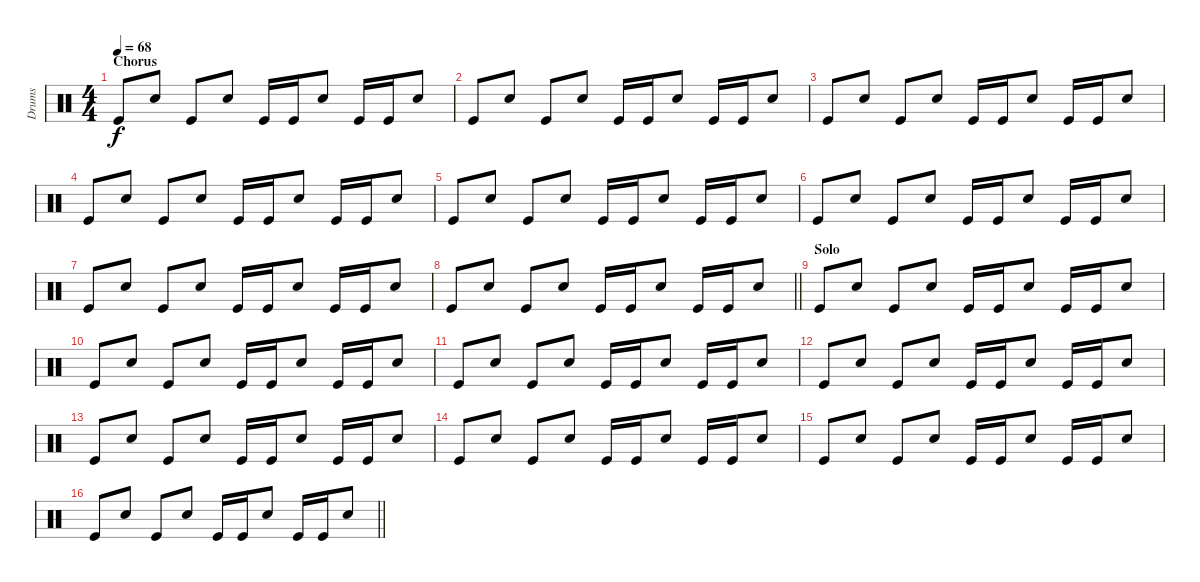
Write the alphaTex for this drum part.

\track ("Drums" "Drums") {instrument percussion}
\staff {score}
\articulation defaults
\ts (4 4)
\section ("" "Chorus")
\tempo 68
\clef neutral
\ks c "Kick (hit)".8{dy f} "Snare (hit) 2".8 "Kick (hit)".8 "Snare (hit) 2".8 "Kick (hit)".16 "Kick (hit)".16 "Snare (hit) 2".8 "Kick (hit)".16 "Kick (hit)".16 "Snare (hit) 2".8
|
"Kick (hit)".8 "Snare (hit) 2".8 "Kick (hit)".8 "Snare (hit) 2".8 "Kick (hit)".16 "Kick (hit)".16 "Snare (hit) 2".8 "Kick (hit)".16 "Kick (hit)".16 "Snare (hit) 2".8 |
"Kick (hit)".8 "Snare (hit) 2".8 "Kick (hit)".8 "Snare (hit) 2".8 "Kick (hit)".16 "Kick (hit)".16 "Snare (hit) 2".8 "Kick (hit)".16 "Kick (hit)".16 "Snare (hit) 2".8 |
"Kick (hit)".8 "Snare (hit) 2".8 "Kick (hit)".8 "Snare (hit) 2".8 "Kick (hit)".16 "Kick (hit)".16 "Snare (hit) 2".8 "Kick (hit)".16 "Kick (hit)".16 "Snare (hit) 2".8 |
"Kick (hit)".8 "Snare (hit) 2".8 "Kick (hit)".8 "Snare (hit) 2".8 "Kick (hit)".16 "Kick (hit)".16 "Snare (hit) 2".8 "Kick (hit)".16 "Kick (hit)".16 "Snare (hit) 2".8 |
"Kick (hit)".8 "Snare (hit) 2".8 "Kick (hit)".8 "Snare (hit) 2".8 "Kick (hit)".16 "Kick (hit)".16 "Snare (hit) 2".8 "Kick (hit)".16 "Kick (hit)".16 "Snare (hit) 2".8 |
"Kick (hit)".8 "Snare (hit) 2".8 "Kick (hit)".8 "Snare (hit) 2".8 "Kick (hit)".16 "Kick (hit)".16 "Snare (hit) 2".8 "Kick (hit)".16 "Kick (hit)".16 "Snare (hit) 2".8 |
\barLineRight lightlight "Kick (hit)".8 "Snare (hit) 2".8 "Kick (hit)".8 "Snare (hit) 2".8 "Kick (hit)".16 "Kick (hit)".16 "Snare (hit) 2".8 "Kick (hit)".16 "Kick (hit)".16 "Snare (hit) 2".8
|
\section ("" "Solo")
"Kick (hit)".8 "Snare (hit) 2".8 "Kick (hit)".8 "Snare (hit) 2".8 "Kick (hit)".16 "Kick (hit)".16 "Snare (hit) 2".8 "Kick (hit)".16 "Kick (hit)".16 "Snare (hit) 2".8 |
"Kick (hit)".8 "Snare (hit) 2".8 "Kick (hit)".8 "Snare (hit) 2".8 "Kick (hit)".16 "Kick (hit)".16 "Snare (hit) 2".8 "Kick (hit)".16 "Kick (hit)".16 "Snare (hit) 2".8 |
"Kick (hit)".8 "Snare (hit) 2".8 "Kick (hit)".8 "Snare (hit) 2".8 "Kick (hit)".16 "Kick (hit)".16 "Snare (hit) 2".8 "Kick (hit)".16 "Kick (hit)".16 "Snare (hit) 2".8 |
"Kick (hit)".8 "Snare (hit) 2".8 "Kick (hit)".8 "Snare (hit) 2".8 "Kick (hit)".16 "Kick (hit)".16 "Snare (hit) 2".8 "Kick (hit)".16 "Kick (hit)".16 "Snare (hit) 2".8 |
"Kick (hit)".8 "Snare (hit) 2".8 "Kick (hit)".8 "Snare (hit) 2".8 "Kick (hit)".16 "Kick (hit)".16 "Snare (hit) 2".8 "Kick (hit)".16 "Kick (hit)".16 "Snare (hit) 2".8 |
"Kick (hit)".8 "Snare (hit) 2".8 "Kick (hit)".8 "Snare (hit) 2".8 "Kick (hit)".16 "Kick (hit)".16 "Snare (hit) 2".8 "Kick (hit)".16 "Kick (hit)".16 "Snare (hit) 2".8 |
"Kick (hit)".8 "Snare (hit) 2".8 "Kick (hit)".8 "Snare (hit) 2".8 "Kick (hit)".16 "Kick (hit)".16 "Snare (hit) 2".8 "Kick (hit)".16 "Kick (hit)".16 "Snare (hit) 2".8 |
\barLineRight lightlight "Kick (hit)".8 "Snare (hit) 2".8 "Kick (hit)".8 "Snare (hit) 2".8 "Kick (hit)".16 "Kick (hit)".16 "Snare (hit) 2".8 "Kick (hit)".16 "Kick (hit)".16 "Snare (hit) 2".8
